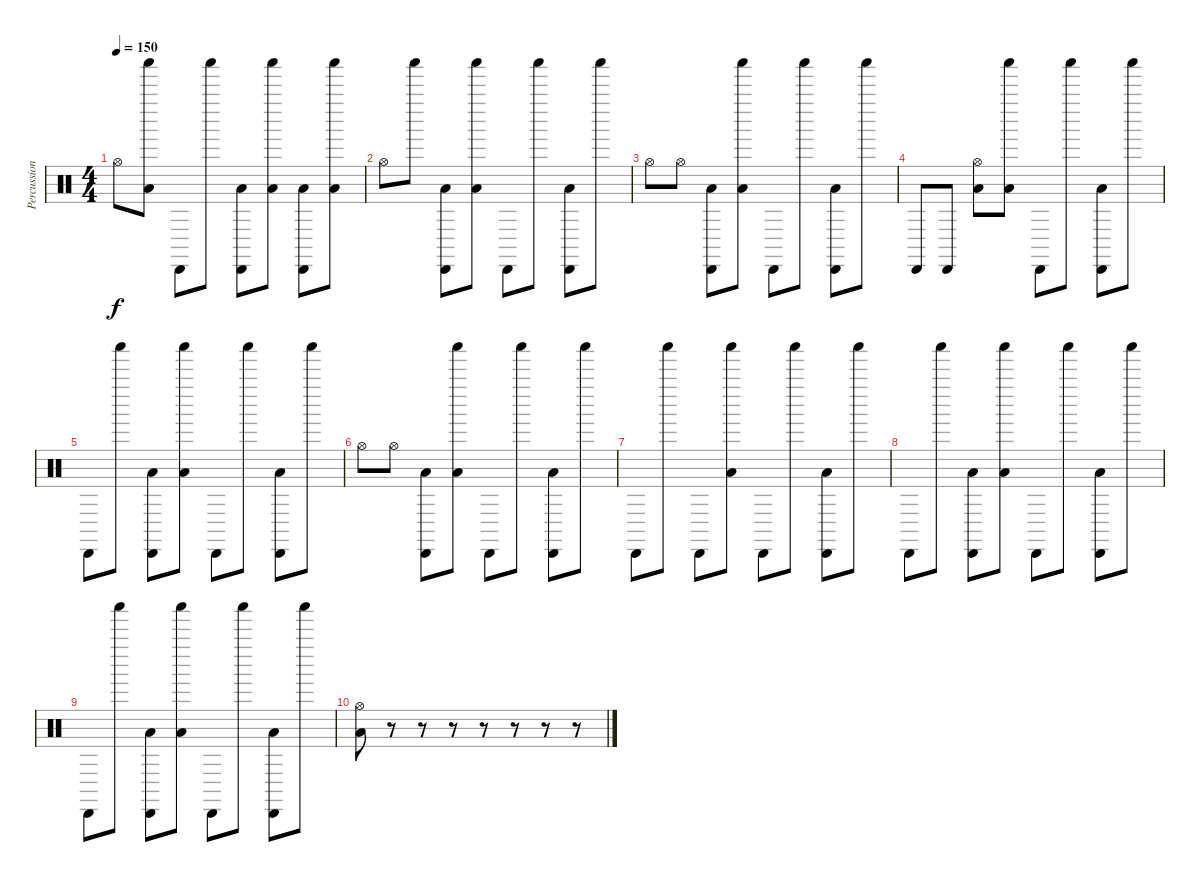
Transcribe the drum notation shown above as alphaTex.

\track ("Percussion" "Percussion") {instrument percussion}
\staff
\articulation defaults
\ts (4 4)
\tempo 150
\clef neutral
\ks c "Hi-Hat (open)".8{dy f}
("Shaker (hit)" "Low Floor Tom (hit)").8 "Cabasa (hit)".8 "Shaker (hit)".8 ("Cabasa (hit)" "Low Floor Tom (hit)").8 ("Shaker (hit)" "Low Floor Tom (hit)").8 ("Cabasa (hit)" "Low Floor Tom (hit)").8 ("Shaker (hit)" "Low Floor Tom (hit)").8 |
"Hi-Hat (open)".8 "Shaker (hit)".8 ("Cabasa (hit)" "Low Floor Tom (hit)").8 ("Shaker (hit)" "Low Floor Tom (hit)").8 "Cabasa (hit)".8 "Shaker (hit)".8 ("Cabasa (hit)" "Low Floor Tom (hit)").8 "Shaker (hit)".8 |
"Hi-Hat (open)".8 "Hi-Hat (open)".8 ("Cabasa (hit)" "Low Floor Tom (hit)").8 ("Shaker (hit)" "Low Floor Tom (hit)").8 "Cabasa (hit)".8 "Shaker (hit)".8 ("Cabasa (hit)" "Low Floor Tom (hit)").8 "Shaker (hit)".8 |
"Cabasa (hit)".8 "Cabasa (hit)".8 ("Hi-Hat (open)" "Low Floor Tom (hit)").8 ("Shaker (hit)" "Low Floor Tom (hit)").8 "Cabasa (hit)".8 "Shaker (hit)".8 ("Cabasa (hit)" "Low Floor Tom (hit)").8 "Shaker (hit)".8 |
"Cabasa (hit)".8 "Shaker (hit)".8 ("Cabasa (hit)" "Low Floor Tom (hit)").8 ("Shaker (hit)" "Low Floor Tom (hit)").8 "Cabasa (hit)".8 "Shaker (hit)".8 ("Cabasa (hit)" "Low Floor Tom (hit)").8 "Shaker (hit)".8 |
"Hi-Hat (open)".8 "Hi-Hat (open)".8 ("Cabasa (hit)" "Low Floor Tom (hit)").8 ("Shaker (hit)" "Low Floor Tom (hit)").8 "Cabasa (hit)".8 "Shaker (hit)".8 ("Cabasa (hit)" "Low Floor Tom (hit)").8 "Shaker (hit)".8 |
"Cabasa (hit)".8 "Shaker (hit)".8 "Cabasa (hit)".8 ("Shaker (hit)" "Low Floor Tom (hit)").8 "Cabasa (hit)".8 "Shaker (hit)".8 ("Cabasa (hit)" "Low Floor Tom (hit)").8 "Shaker (hit)".8 |
"Cabasa (hit)".8 "Shaker (hit)".8 ("Cabasa (hit)" "Low Floor Tom (hit)").8 ("Shaker (hit)" "Low Floor Tom (hit)").8 "Cabasa (hit)".8 "Shaker (hit)".8 ("Cabasa (hit)" "Low Floor Tom (hit)").8 "Shaker (hit)".8 |
"Cabasa (hit)".8 "Shaker (hit)".8 ("Cabasa (hit)" "Low Floor Tom (hit)").8 ("Shaker (hit)" "Low Floor Tom (hit)").8 "Cabasa (hit)".8 "Shaker (hit)".8 ("Cabasa (hit)" "Low Floor Tom (hit)").8 "Shaker (hit)".8 |
("Hi-Hat (open)" "Low Floor Tom (hit)").8 r.8 r.8 r.8 r.8 r.8 r.8 r.8
